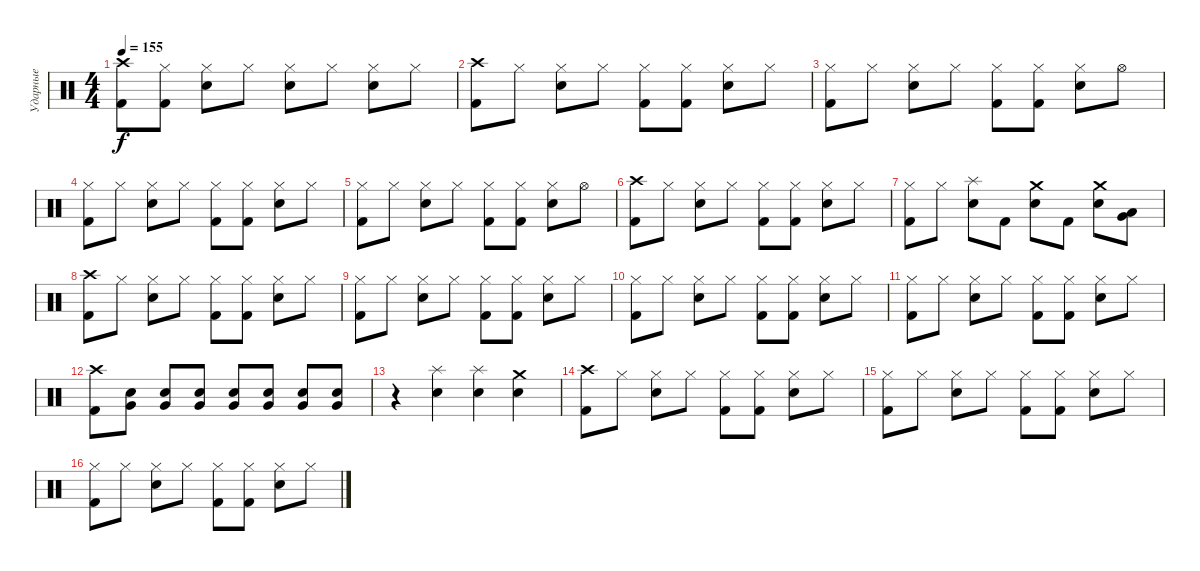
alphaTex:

\track ("Ударные" "Ударные") {instrument percussion}
\staff {score}
\articulation defaults
\ts (4 4)
\tempo 155
\clef neutral
\ks c
("Crash high (hit)" "Kick (hit) 2").8{dy f} ("Hi-Hat (closed)" "Kick (hit) 2").8 ("Hi-Hat (closed)" "Electric Snare (hit)").8 "Hi-Hat (closed)".8 ("Hi-Hat (closed)" "Electric Snare (hit)").8 "Hi-Hat (closed)".8 ("Hi-Hat (closed)" "Electric Snare (hit)").8 "Hi-Hat (closed)".8 |
("Crash high (hit)" "Kick (hit) 2").8 "Hi-Hat (closed)".8 ("Hi-Hat (closed)" "Electric Snare (hit)").8 "Hi-Hat (closed)".8 ("Hi-Hat (closed)" "Kick (hit) 2").8 ("Hi-Hat (closed)" "Kick (hit) 2").8 ("Hi-Hat (closed)" "Electric Snare (hit)").8 "Hi-Hat (closed)".8 |
("Hi-Hat (closed)" "Kick (hit) 2").8 "Hi-Hat (closed)".8 ("Hi-Hat (closed)" "Electric Snare (hit)").8 "Hi-Hat (closed)".8 ("Hi-Hat (closed)" "Kick (hit) 2").8 ("Hi-Hat (closed)" "Kick (hit) 2").8 ("Hi-Hat (closed)" "Electric Snare (hit)").8 "Hi-Hat (open)".8 |
("Hi-Hat (closed)" "Kick (hit) 2").8 "Hi-Hat (closed)".8 ("Hi-Hat (closed)" "Electric Snare (hit)").8 "Hi-Hat (closed)".8 ("Hi-Hat (closed)" "Kick (hit) 2").8 ("Hi-Hat (closed)" "Kick (hit) 2").8 ("Hi-Hat (closed)" "Electric Snare (hit)").8 "Hi-Hat (closed)".8 |
("Hi-Hat (closed)" "Kick (hit) 2").8 "Hi-Hat (closed)".8 ("Hi-Hat (closed)" "Electric Snare (hit)").8 "Hi-Hat (closed)".8 ("Hi-Hat (closed)" "Kick (hit) 2").8 ("Hi-Hat (closed)" "Kick (hit) 2").8 ("Hi-Hat (closed)" "Electric Snare (hit)").8 "Hi-Hat (open)".8 |
("Crash high (hit)" "Kick (hit) 2").8 "Hi-Hat (closed)".8 ("Hi-Hat (closed)" "Electric Snare (hit)").8 "Hi-Hat (closed)".8 ("Hi-Hat (closed)" "Kick (hit) 2").8 ("Hi-Hat (closed)" "Kick (hit) 2").8 ("Hi-Hat (closed)" "Electric Snare (hit)").8 "Hi-Hat (closed)".8 |
("Hi-Hat (closed)" "Kick (hit) 2").8 "Hi-Hat (closed)".8 ("Splash (hit)" "Electric Snare (hit)").8 "Kick (hit) 2".8 ("Crash medium (hit)" "Electric Snare (hit)").8 "Kick (hit) 2".8 ("Crash medium (hit)" "Electric Snare (hit)").8 ("Very Low Tom (hit)" "Low Tom (hit)").8 |
("Crash high (hit)" "Kick (hit) 2").8 "Hi-Hat (closed)".8 ("Hi-Hat (closed)" "Electric Snare (hit)").8 "Hi-Hat (closed)".8 ("Hi-Hat (closed)" "Kick (hit) 2").8 ("Hi-Hat (closed)" "Kick (hit) 2").8 ("Hi-Hat (closed)" "Electric Snare (hit)").8 "Hi-Hat (closed)".8 |
("Hi-Hat (closed)" "Kick (hit) 2").8 "Hi-Hat (closed)".8 ("Hi-Hat (closed)" "Electric Snare (hit)").8 "Hi-Hat (closed)".8 ("Hi-Hat (closed)" "Kick (hit) 2").8 ("Hi-Hat (closed)" "Kick (hit) 2").8 ("Hi-Hat (closed)" "Electric Snare (hit)").8 "Hi-Hat (closed)".8 |
("Hi-Hat (closed)" "Kick (hit) 2").8 "Hi-Hat (closed)".8 ("Hi-Hat (closed)" "Electric Snare (hit)").8 "Hi-Hat (closed)".8 ("Hi-Hat (closed)" "Kick (hit) 2").8 ("Hi-Hat (closed)" "Kick (hit) 2").8 ("Hi-Hat (closed)" "Electric Snare (hit)").8 "Hi-Hat (closed)".8 |
("Hi-Hat (closed)" "Kick (hit) 2").8 "Hi-Hat (closed)".8 ("Hi-Hat (closed)" "Electric Snare (hit)").8 "Hi-Hat (closed)".8 ("Hi-Hat (closed)" "Kick (hit) 2").8 ("Hi-Hat (closed)" "Kick (hit) 2").8 ("Hi-Hat (closed)" "Electric Snare (hit)").8 "Hi-Hat (closed)".8 |
("Crash high (hit)" "Kick (hit) 2").8 ("Electric Snare (hit)" "Very Low Tom (hit)").8 ("Electric Snare (hit)" "Very Low Tom (hit)").8 ("Electric Snare (hit)" "Very Low Tom (hit)").8 ("Electric Snare (hit)" "Very Low Tom (hit)").8 ("Electric Snare (hit)" "Very Low Tom (hit)").8 ("Electric Snare (hit)" "Very Low Tom (hit)").8 ("Electric Snare (hit)" "Very Low Tom (hit)").8 |
r.4 ("Splash (hit)" "Electric Snare (hit)").4 ("Splash (hit)" "Electric Snare (hit)").4 ("Crash medium (hit)" "Electric Snare (hit)").4 |
("Crash high (hit)" "Kick (hit) 2").8 "Hi-Hat (closed)".8 ("Hi-Hat (closed)" "Electric Snare (hit)").8 "Hi-Hat (closed)".8 ("Hi-Hat (closed)" "Kick (hit) 2").8 ("Hi-Hat (closed)" "Kick (hit) 2").8 ("Hi-Hat (closed)" "Electric Snare (hit)").8 "Hi-Hat (closed)".8 |
("Hi-Hat (closed)" "Kick (hit) 2").8 "Hi-Hat (closed)".8 ("Hi-Hat (closed)" "Electric Snare (hit)").8 "Hi-Hat (closed)".8 ("Hi-Hat (closed)" "Kick (hit) 2").8 ("Hi-Hat (closed)" "Kick (hit) 2").8 ("Hi-Hat (closed)" "Electric Snare (hit)").8 "Hi-Hat (closed)".8 |
("Hi-Hat (closed)" "Kick (hit) 2").8 "Hi-Hat (closed)".8 ("Hi-Hat (closed)" "Electric Snare (hit)").8 "Hi-Hat (closed)".8 ("Hi-Hat (closed)" "Kick (hit) 2").8 ("Hi-Hat (closed)" "Kick (hit) 2").8 ("Hi-Hat (closed)" "Electric Snare (hit)").8 "Hi-Hat (closed)".8
